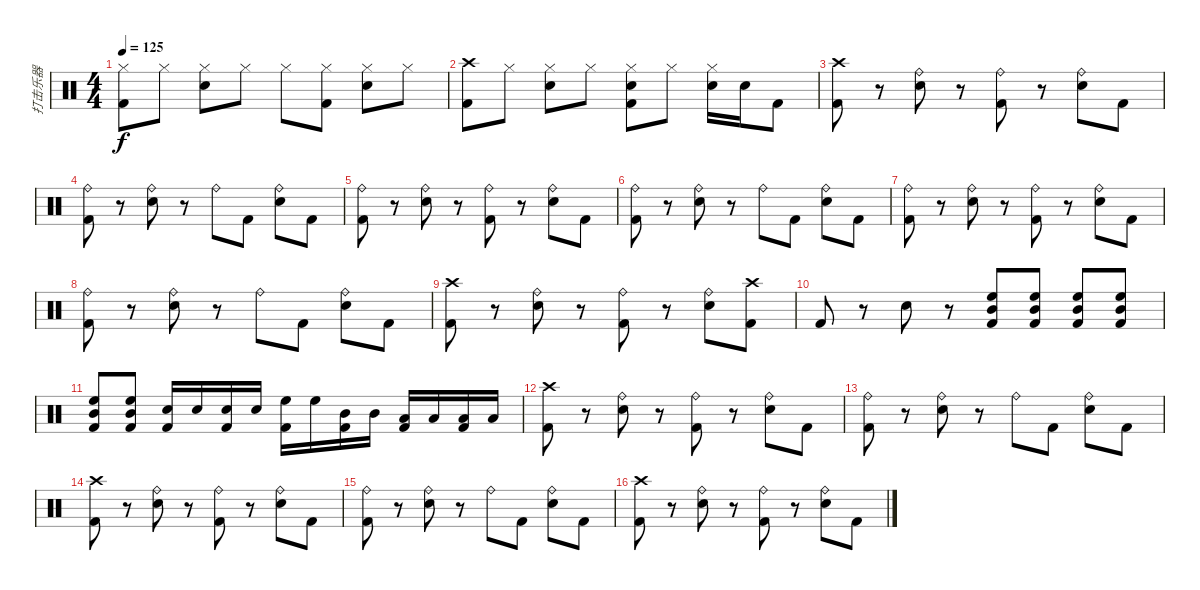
\track ("打击乐器" "打击乐器") {instrument percussion}
\staff {score}
\articulation defaults
\ts (4 4)
\tempo 125
\clef neutral
\ks c
("Hi-Hat (closed)" "Kick (hit) 2").8{dy f} "Hi-Hat (closed)".8 ("Hi-Hat (closed)" "Snare (hit) 2").8 "Hi-Hat (closed)".8 "Hi-Hat (closed)".8 ("Hi-Hat (closed)" "Kick (hit) 2").8 ("Hi-Hat (closed)" "Snare (hit) 2").8 "Hi-Hat (closed)".8 |
("Crash high (hit)" "Kick (hit) 2").8 "Hi-Hat (closed)".8 ("Hi-Hat (closed)" "Snare (hit) 2").8 "Hi-Hat (closed)".8 ("Hi-Hat (closed)" "Snare (hit) 2" "Kick (hit) 2").8 "Hi-Hat (closed)".8 ("Hi-Hat (closed)" "Snare (hit) 2").16 "Snare (hit) 2".16 "Kick (hit) 2".8 |
("Crash high (hit)" "Kick (hit) 2").8 r.8 ("Ride (bell)" "Snare (hit) 2").8 r.8 ("Ride (bell)" "Kick (hit) 2").8 r.8 ("Ride (bell)" "Snare (hit) 2").8 "Kick (hit) 2".8 |
("Ride (bell)" "Kick (hit) 2").8 r.8 ("Ride (bell)" "Snare (hit) 2").8 r.8 "Ride (bell)".8 "Kick (hit) 2".8 ("Ride (bell)" "Snare (hit) 2").8 "Kick (hit) 2".8 |
("Ride (bell)" "Kick (hit) 2").8 r.8 ("Ride (bell)" "Snare (hit) 2").8 r.8 ("Ride (bell)" "Kick (hit) 2").8 r.8 ("Ride (bell)" "Snare (hit) 2").8 "Kick (hit) 2".8 |
("Ride (bell)" "Kick (hit) 2").8 r.8 ("Ride (bell)" "Snare (hit) 2").8 r.8 "Ride (bell)".8 "Kick (hit) 2".8 ("Ride (bell)" "Snare (hit) 2").8 "Kick (hit) 2".8 |
("Ride (bell)" "Kick (hit) 2").8 r.8 ("Ride (bell)" "Snare (hit) 2").8 r.8 ("Ride (bell)" "Kick (hit) 2").8 r.8 ("Ride (bell)" "Snare (hit) 2").8 "Kick (hit) 2".8 |
("Ride (bell)" "Kick (hit) 2").8 r.8 ("Ride (bell)" "Snare (hit) 2").8 r.8 "Ride (bell)".8 "Kick (hit) 2".8 ("Ride (bell)" "Snare (hit) 2").8 "Kick (hit) 2".8 |
("Crash high (hit)" "Kick (hit) 2").8 r.8 ("Ride (bell)" "Snare (hit) 2").8 r.8 ("Ride (bell)" "Kick (hit) 2").8 r.8 ("Ride (bell)" "Snare (hit) 2").8 ("Crash high (hit)" "Kick (hit) 2").8 |
"Kick (hit) 2".8 r.8 "Snare (hit) 2".8 r.8 ("High Floor Tom (hit)" "Mid Tom (hit)" "Kick (hit) 2").8 ("High Floor Tom (hit)" "Mid Tom (hit)" "Kick (hit) 2").8 ("High Floor Tom (hit)" "Mid Tom (hit)" "Kick (hit) 2").8 ("High Floor Tom (hit)" "Mid Tom (hit)" "Kick (hit) 2").8 |
("High Floor Tom (hit)" "Mid Tom (hit)" "Kick (hit) 2").8 ("High Floor Tom (hit)" "Mid Tom (hit)" "Kick (hit) 2").8 ("Snare (hit) 2" "Kick (hit) 2").16 "Snare (hit) 2".16 ("Snare (hit) 2" "Kick (hit) 2").16 "Snare (hit) 2".16 ("High Floor Tom (hit)" "Kick (hit) 2").16 "High Floor Tom (hit)".16 ("Mid Tom (hit)" "Kick (hit) 2").16 "Mid Tom (hit)".16 ("Low Tom (hit)" "Kick (hit) 2").16 "Low Tom (hit)".16 ("Low Tom (hit)" "Kick (hit) 2").16 "Low Tom (hit)".16 |
("Crash high (hit)" "Kick (hit) 2").8 r.8 ("Ride (bell)" "Snare (hit) 2").8 r.8 ("Ride (bell)" "Kick (hit) 2").8 r.8 ("Ride (bell)" "Snare (hit) 2").8 "Kick (hit) 2".8 |
("Ride (bell)" "Kick (hit) 2").8 r.8 ("Ride (bell)" "Snare (hit) 2").8 r.8 "Ride (bell)".8 "Kick (hit) 2".8 ("Ride (bell)" "Snare (hit) 2").8 "Kick (hit) 2".8 |
("Crash high (hit)" "Kick (hit) 2").8 r.8 ("Ride (bell)" "Snare (hit) 2").8 r.8 ("Ride (bell)" "Kick (hit) 2").8 r.8 ("Ride (bell)" "Snare (hit) 2").8 "Kick (hit) 2".8 |
("Ride (bell)" "Kick (hit) 2").8 r.8 ("Ride (bell)" "Snare (hit) 2").8 r.8 "Ride (bell)".8 "Kick (hit) 2".8 ("Ride (bell)" "Snare (hit) 2").8 "Kick (hit) 2".8 |
("Crash high (hit)" "Kick (hit) 2").8 r.8 ("Ride (bell)" "Snare (hit) 2").8 r.8 ("Ride (bell)" "Kick (hit) 2").8 r.8 ("Ride (bell)" "Snare (hit) 2").8 "Kick (hit) 2".8
